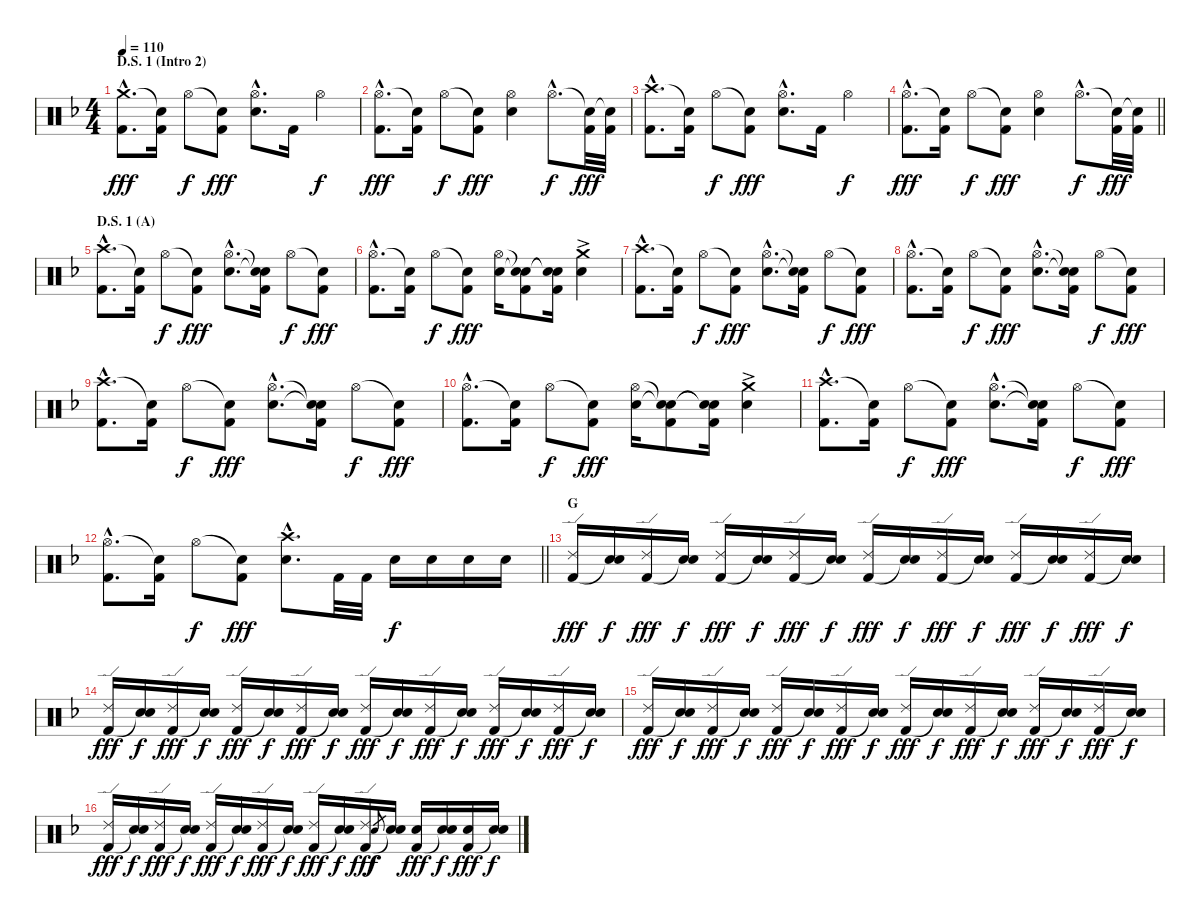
\track "" {instrument percussion}
\staff {score}
\articulation defaults
\ts (4 4)
\section ("" "D.S. 1 (Intro 2)")
\tempo 110
\clef neutral
\ks dminor
("Crash medium (hit)"{hac} "Kick (hit) 2"{hac}).8{d dy fff} ("Snare (hit)"{t} "Kick (hit) 2").16 "Hi-Hat (open)".8{dy f} ("Snare (hit)"{t} "Kick (hit) 2").8{dy fff} ("Hi-Hat (open)"{hac} "Electric Snare (hit)"{hac}).8{d} "Kick (hit) 2".16 "Hi-Hat (open)".4{dy f} |
("Hi-Hat (open)"{hac} "Kick (hit) 2"{hac}).8{d dy fff} ("Snare (hit)"{t} "Kick (hit) 2").16 "Hi-Hat (open)".8{dy f} ("Snare (hit)"{t} "Kick (hit) 2").8{dy fff} ("Hi-Hat (open)" "Electric Snare (hit)").4 "Hi-Hat (open)"{hac}.8{d dy f} ("Snare (hit)"{t} "Kick (hit) 2").32{dy fff} ("Snare (hit)"{t} "Kick (hit) 2").32 |
("Crash high (hit)"{hac} "Kick (hit) 2"{hac}).8{d} ("Snare (hit)"{t} "Kick (hit) 2").16 "Hi-Hat (open)".8{dy f} ("Snare (hit)"{t} "Kick (hit) 2").8{dy fff} ("Hi-Hat (open)"{hac} "Electric Snare (hit)"{hac}).8{d} "Kick (hit) 2".16 "Hi-Hat (open)".4{dy f} |
\barLineRight lightlight
("Hi-Hat (open)"{hac} "Kick (hit) 2"{hac}).8{d dy fff} ("Snare (hit)"{t} "Kick (hit) 2").16 "Hi-Hat (open)".8{dy f} ("Snare (hit)"{t} "Kick (hit) 2").8{dy fff} ("Hi-Hat (open)" "Electric Snare (hit)").4 "Hi-Hat (open)"{hac}.8{d dy f} ("Snare (hit)"{t} "Kick (hit) 2").32{dy fff} ("Snare (hit)"{t} "Kick (hit) 2").32 |
\section ("" "D.S. 1 (A)")
("Crash high (hit)"{hac} "Kick (hit) 2"{hac}).8{d} ("Snare (hit)"{t} "Kick (hit) 2").16 "Hi-Hat (open)".8{dy f} ("Snare (hit)"{t} "Kick (hit) 2").8{dy fff} ("Hi-Hat (open)"{hac} "Electric Snare (hit)"{hac}).8{d} ("Snare (hit)"{t} "Snare (hit)"{t} "Kick (hit) 2").16 "Hi-Hat (open)".8{dy f} ("Snare (hit)"{t} "Kick (hit) 2").8{dy fff} |
("Hi-Hat (open)"{hac} "Kick (hit) 2"{hac}).8{d} ("Snare (hit)"{t} "Kick (hit) 2").16 "Hi-Hat (open)".8{dy f} ("Snare (hit)"{t} "Kick (hit) 2").8{dy fff} ("Hi-Hat (open)" "Electric Snare (hit)").16 ("Snare (hit)"{t} "Snare (hit)"{t} "Kick (hit) 2").8 ("Snare (hit)"{t} "Snare (hit)"{t} "Kick (hit) 2").16 ("Crash medium (hit)"{ac} "Electric Snare (hit)").4 |
("Crash high (hit)"{hac} "Kick (hit) 2"{hac}).8{d} ("Snare (hit)"{t} "Kick (hit) 2").16 "Hi-Hat (open)".8{dy f} ("Snare (hit)"{t} "Kick (hit) 2").8{dy fff} ("Hi-Hat (open)"{hac} "Electric Snare (hit)"{hac}).8{d} ("Snare (hit)"{t} "Snare (hit)"{t} "Kick (hit) 2").16 "Hi-Hat (open)".8{dy f} ("Snare (hit)"{t} "Kick (hit) 2").8{dy fff} |
("Hi-Hat (open)"{hac} "Kick (hit) 2"{hac}).8{d} ("Snare (hit)"{t} "Kick (hit) 2").16 "Hi-Hat (open)".8{dy f} ("Snare (hit)"{t} "Kick (hit) 2").8{dy fff} ("Hi-Hat (open)"{hac} "Electric Snare (hit)"{hac}).8{d} ("Snare (hit)"{t} "Snare (hit)"{t} "Kick (hit) 2").16 "Hi-Hat (open)".8{dy f} ("Snare (hit)"{t} "Kick (hit) 2").8{dy fff} |
("Crash high (hit)"{hac} "Kick (hit) 2"{hac}).8{d} ("Snare (hit)"{t} "Kick (hit) 2").16 "Hi-Hat (open)".8{dy f} ("Snare (hit)"{t} "Kick (hit) 2").8{dy fff} ("Hi-Hat (open)"{hac} "Electric Snare (hit)"{hac}).8{d} ("Snare (hit)"{t} "Snare (hit)"{t} "Kick (hit) 2").16 "Hi-Hat (open)".8{dy f} ("Snare (hit)"{t} "Kick (hit) 2").8{dy fff} |
("Hi-Hat (open)"{hac} "Kick (hit) 2"{hac}).8{d} ("Snare (hit)"{t} "Kick (hit) 2").16 "Hi-Hat (open)".8{dy f} ("Snare (hit)"{t} "Kick (hit) 2").8{dy fff} ("Hi-Hat (open)" "Electric Snare (hit)").16 ("Snare (hit)"{t} "Snare (hit)"{t} "Kick (hit) 2").8 ("Snare (hit)"{t} "Snare (hit)"{t} "Kick (hit) 2").16 ("Crash medium (hit)"{ac} "Electric Snare (hit)").4 |
("Crash high (hit)"{hac} "Kick (hit) 2"{hac}).8{d} ("Snare (hit)"{t} "Kick (hit) 2").16 "Hi-Hat (open)".8{dy f} ("Snare (hit)"{t} "Kick (hit) 2").8{dy fff} ("Hi-Hat (open)"{hac} "Electric Snare (hit)"{hac}).8{d} ("Snare (hit)"{t} "Snare (hit)"{t} "Kick (hit) 2").16 "Hi-Hat (open)".8{dy f} ("Snare (hit)"{t} "Kick (hit) 2").8{dy fff} |
\barLineRight lightlight
("Hi-Hat (open)"{hac} "Kick (hit) 2"{hac}).8{d} ("Snare (hit)"{t} "Kick (hit) 2").16 "Hi-Hat (open)".8{dy f} ("Snare (hit)"{t} "Kick (hit) 2").8{dy fff} ("Crash high (hit)"{hac} "Electric Snare (hit)"{hac}).8{d} "Kick (hit) 2".32 "Kick (hit) 2".32 "Electric Snare (hit)".16{dy f} "Electric Snare (hit)".16 "Electric Snare (hit)".16 "Electric Snare (hit)".16 |
\section ("" "G")
("Ride (edge) 2" "Kick (hit) 2").16{dy fff} ("Electric Snare (hit)" "Snare (hit)"{t}).16{dy f} ("Ride (edge) 2" "Kick (hit) 2").16{dy fff} ("Electric Snare (hit)" "Snare (hit)"{t}).16{dy f} ("Ride (edge) 2" "Kick (hit) 2").16{dy fff} ("Electric Snare (hit)" "Snare (hit)"{t}).16{dy f} ("Ride (edge) 2" "Kick (hit) 2").16{dy fff} ("Electric Snare (hit)" "Snare (hit)"{t}).16{dy f} ("Ride (edge) 2" "Kick (hit) 2").16{dy fff} ("Electric Snare (hit)" "Snare (hit)"{t}).16{dy f} ("Ride (edge) 2" "Kick (hit) 2").16{dy fff} ("Electric Snare (hit)" "Snare (hit)"{t}).16{dy f} ("Ride (edge) 2" "Kick (hit) 2").16{dy fff} ("Electric Snare (hit)" "Snare (hit)"{t}).16{dy f} ("Ride (edge) 2" "Kick (hit) 2").16{dy fff} ("Electric Snare (hit)" "Snare (hit)"{t}).16{dy f} |
("Ride (edge) 2" "Kick (hit) 2").16{dy fff} ("Electric Snare (hit)" "Snare (hit)"{t}).16{dy f} ("Ride (edge) 2" "Kick (hit) 2").16{dy fff} ("Electric Snare (hit)" "Snare (hit)"{t}).16{dy f} ("Ride (edge) 2" "Kick (hit) 2").16{dy fff} ("Electric Snare (hit)" "Snare (hit)"{t}).16{dy f} ("Ride (edge) 2" "Kick (hit) 2").16{dy fff} ("Electric Snare (hit)" "Snare (hit)"{t}).16{dy f} ("Ride (edge) 2" "Kick (hit) 2").16{dy fff} ("Electric Snare (hit)" "Snare (hit)"{t}).16{dy f} ("Ride (edge) 2" "Kick (hit) 2").16{dy fff} ("Electric Snare (hit)" "Snare (hit)"{t}).16{dy f} ("Ride (edge) 2" "Kick (hit) 2").16{dy fff} ("Electric Snare (hit)" "Snare (hit)"{t}).16{dy f} ("Ride (edge) 2" "Kick (hit) 2").16{dy fff} ("Electric Snare (hit)" "Snare (hit)"{t}).16{dy f} |
("Ride (edge) 2" "Kick (hit) 2").16{dy fff} ("Electric Snare (hit)" "Snare (hit)"{t}).16{dy f} ("Ride (edge) 2" "Kick (hit) 2").16{dy fff} ("Electric Snare (hit)" "Snare (hit)"{t}).16{dy f} ("Ride (edge) 2" "Kick (hit) 2").16{dy fff} ("Electric Snare (hit)" "Snare (hit)"{t}).16{dy f} ("Ride (edge) 2" "Kick (hit) 2").16{dy fff} ("Electric Snare (hit)" "Snare (hit)"{t}).16{dy f} ("Ride (edge) 2" "Kick (hit) 2").16{dy fff} ("Electric Snare (hit)" "Snare (hit)"{t}).16{dy f} ("Ride (edge) 2" "Kick (hit) 2").16{dy fff} ("Electric Snare (hit)" "Snare (hit)"{t}).16{dy f} ("Ride (edge) 2" "Kick (hit) 2").16{dy fff} ("Electric Snare (hit)" "Snare (hit)"{t}).16{dy f} ("Ride (edge) 2" "Kick (hit) 2").16{dy fff} ("Electric Snare (hit)" "Snare (hit)"{t}).16{dy f} |
("Ride (edge) 2" "Kick (hit) 2").16{dy fff} ("Electric Snare (hit)" "Snare (hit)"{t}).16{dy f} ("Ride (edge) 2" "Kick (hit) 2").16{dy fff} ("Electric Snare (hit)" "Snare (hit)"{t}).16{dy f} ("Ride (edge) 2" "Kick (hit) 2").16{dy fff} ("Electric Snare (hit)" "Snare (hit)"{t}).16{dy f} ("Ride (edge) 2" "Kick (hit) 2").16{dy fff} ("Electric Snare (hit)" "Snare (hit)"{t}).16{dy f} ("Ride (edge) 2" "Kick (hit) 2").16{dy fff} ("Electric Snare (hit)" "Snare (hit)"{t}).16{dy f} ("Ride (edge) 2" "Kick (hit) 2").16{dy fff} "Electric Snare (hit)".8{gr dy f} ("Electric Snare (hit)" "Snare (hit)"{t}).16 ("Electric Snare (hit)" "Kick (hit) 2").16{dy fff} ("Electric Snare (hit)" "Snare (hit)"{t}).16{dy f} ("Electric Snare (hit)" "Kick (hit) 2").16{dy fff} ("Electric Snare (hit)" "Snare (hit)"{t}).16{dy f}
